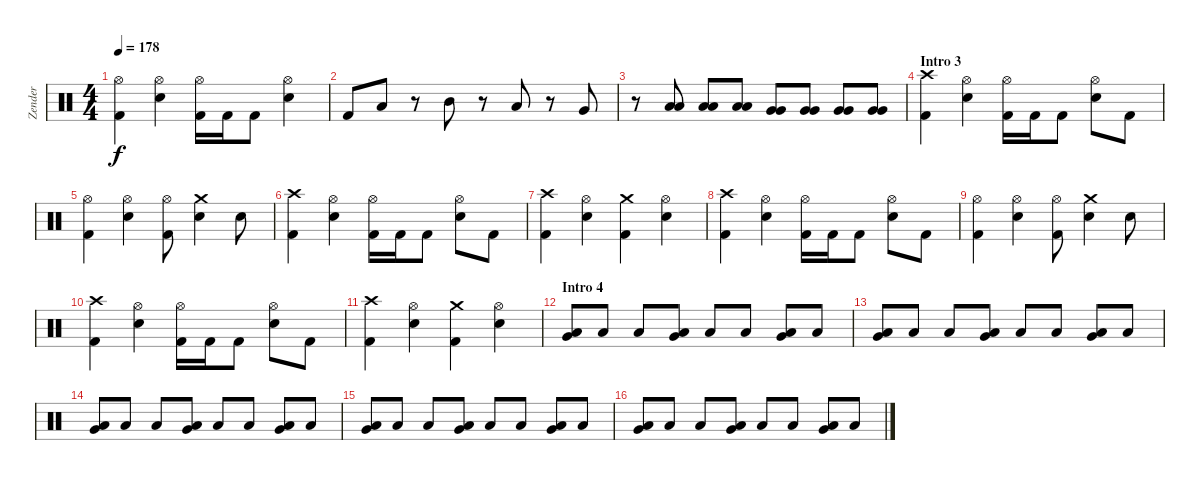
\track ("Zender" "Zender") {instrument percussion}
\staff {score}
\articulation defaults
\ts (4 4)
\tempo 178
\clef neutral
\ks c
("Hi-Hat (open)" "Kick (hit) 2").4{dy f} ("Hi-Hat (open)" "Electric Snare (hit)").4 ("Hi-Hat (open)" "Kick (hit) 2").16 "Kick (hit) 2".16 "Kick (hit) 2".8 ("Hi-Hat (open)" "Electric Snare (hit)").4 |
"Kick (hit) 2".8 "Low Tom (hit)".8 r.8 "Mid Tom (hit)".8 r.8 "Low Tom (hit)".8 r.8 "Very Low Tom (hit)".8 |
r.8 ("Low Floor Tom (hit)" "Low Floor Tom (hit)").8 ("Low Floor Tom (hit)" "Low Floor Tom (hit)").8 ("Low Floor Tom (hit)" "Low Floor Tom (hit)").8 ("Very Low Tom (hit)" "Very Low Tom (hit)").8 ("Very Low Tom (hit)" "Very Low Tom (hit)").8 ("Very Low Tom (hit)" "Very Low Tom (hit)").8 ("Very Low Tom (hit)" "Very Low Tom (hit)").8 |
\section ("" "Intro 3")
("Crash high (hit)" "Kick (hit) 2").4 ("Hi-Hat (open)" "Electric Snare (hit)").4 ("Hi-Hat (open)" "Kick (hit) 2").16 "Kick (hit) 2".16 "Kick (hit) 2".8 ("Hi-Hat (open)" "Electric Snare (hit)").8 "Kick (hit) 2".8 |
("Hi-Hat (open)" "Kick (hit) 2").4 ("Hi-Hat (open)" "Electric Snare (hit)").4 ("Hi-Hat (open)" "Kick (hit) 2").8 ("Crash medium (hit)" "Electric Snare (hit)").4 "Electric Snare (hit)".8 |
("Crash high (hit)" "Kick (hit) 2").4 ("Hi-Hat (open)" "Electric Snare (hit)").4 ("Hi-Hat (open)" "Kick (hit) 2").16 "Kick (hit) 2".16 "Kick (hit) 2".8 ("Hi-Hat (open)" "Electric Snare (hit)").8 "Kick (hit) 2".8 |
("Crash high (hit)" "Kick (hit) 2").4 ("Hi-Hat (open)" "Electric Snare (hit)").4 ("Crash medium (hit)" "Kick (hit) 2").4 ("Hi-Hat (open)" "Electric Snare (hit)").4 |
("Crash high (hit)" "Kick (hit) 2").4 ("Hi-Hat (open)" "Electric Snare (hit)").4 ("Hi-Hat (open)" "Kick (hit) 2").16 "Kick (hit) 2".16 "Kick (hit) 2".8 ("Hi-Hat (open)" "Electric Snare (hit)").8 "Kick (hit) 2".8 |
("Hi-Hat (open)" "Kick (hit) 2").4 ("Hi-Hat (open)" "Electric Snare (hit)").4 ("Hi-Hat (open)" "Kick (hit) 2").8 ("Crash medium (hit)" "Electric Snare (hit)").4 "Electric Snare (hit)".8 |
("Crash high (hit)" "Kick (hit) 2").4 ("Hi-Hat (open)" "Electric Snare (hit)").4 ("Hi-Hat (open)" "Kick (hit) 2").16 "Kick (hit) 2".16 "Kick (hit) 2".8 ("Hi-Hat (open)" "Electric Snare (hit)").8 "Kick (hit) 2".8 |
("Crash high (hit)" "Kick (hit) 2").4 ("Hi-Hat (open)" "Electric Snare (hit)").4 ("Crash medium (hit)" "Kick (hit) 2").4 ("Hi-Hat (open)" "Electric Snare (hit)").4 |
\section ("" "Intro 4")
("Very Low Tom (hit)" "Low Floor Tom (hit)").8 "Low Floor Tom (hit)".8 "Low Floor Tom (hit)".8 ("Very Low Tom (hit)" "Low Floor Tom (hit)").8 "Low Floor Tom (hit)".8 "Low Floor Tom (hit)".8 ("Very Low Tom (hit)" "Low Floor Tom (hit)").8 "Low Floor Tom (hit)".8 |
("Very Low Tom (hit)" "Low Floor Tom (hit)").8 "Low Floor Tom (hit)".8 "Low Floor Tom (hit)".8 ("Very Low Tom (hit)" "Low Floor Tom (hit)").8 "Low Floor Tom (hit)".8 "Low Floor Tom (hit)".8 ("Very Low Tom (hit)" "Low Floor Tom (hit)").8 "Low Floor Tom (hit)".8 |
("Very Low Tom (hit)" "Low Floor Tom (hit)").8 "Low Floor Tom (hit)".8 "Low Floor Tom (hit)".8 ("Very Low Tom (hit)" "Low Floor Tom (hit)").8 "Low Floor Tom (hit)".8 "Low Floor Tom (hit)".8 ("Very Low Tom (hit)" "Low Floor Tom (hit)").8 "Low Floor Tom (hit)".8 |
("Very Low Tom (hit)" "Low Floor Tom (hit)").8 "Low Floor Tom (hit)".8 "Low Floor Tom (hit)".8 ("Very Low Tom (hit)" "Low Floor Tom (hit)").8 "Low Floor Tom (hit)".8 "Low Floor Tom (hit)".8 ("Very Low Tom (hit)" "Low Floor Tom (hit)").8 "Low Floor Tom (hit)".8 |
("Very Low Tom (hit)" "Low Floor Tom (hit)").8 "Low Floor Tom (hit)".8 "Low Floor Tom (hit)".8 ("Very Low Tom (hit)" "Low Floor Tom (hit)").8 "Low Floor Tom (hit)".8 "Low Floor Tom (hit)".8 ("Very Low Tom (hit)" "Low Floor Tom (hit)").8 "Low Floor Tom (hit)".8
